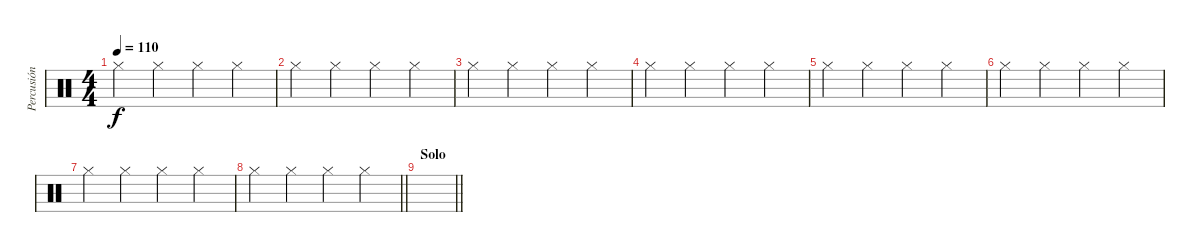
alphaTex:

\track ("Percusión" "Percusión") {instrument percussion}
\staff {score}
\articulation defaults
\ts (4 4)
\tempo 110
\clef neutral
\ks c "Hi-Hat (closed)".4{dy f} "Hi-Hat (closed)".4 "Hi-Hat (closed)".4 "Hi-Hat (closed)".4
|
"Hi-Hat (closed)".4 "Hi-Hat (closed)".4 "Hi-Hat (closed)".4 "Hi-Hat (closed)".4 |
"Hi-Hat (closed)".4 "Hi-Hat (closed)".4 "Hi-Hat (closed)".4 "Hi-Hat (closed)".4 |
"Hi-Hat (closed)".4 "Hi-Hat (closed)".4 "Hi-Hat (closed)".4 "Hi-Hat (closed)".4 |
"Hi-Hat (closed)".4 "Hi-Hat (closed)".4 "Hi-Hat (closed)".4 "Hi-Hat (closed)".4 |
"Hi-Hat (closed)".4 "Hi-Hat (closed)".4 "Hi-Hat (closed)".4 "Hi-Hat (closed)".4 |
"Hi-Hat (closed)".4 "Hi-Hat (closed)".4 "Hi-Hat (closed)".4 "Hi-Hat (closed)".4 |
\barLineRight lightlight "Hi-Hat (closed)".4 "Hi-Hat (closed)".4 "Hi-Hat (closed)".4 "Hi-Hat (closed)".4
|
\section ("" "Solo")
\barLineRight lightlight
